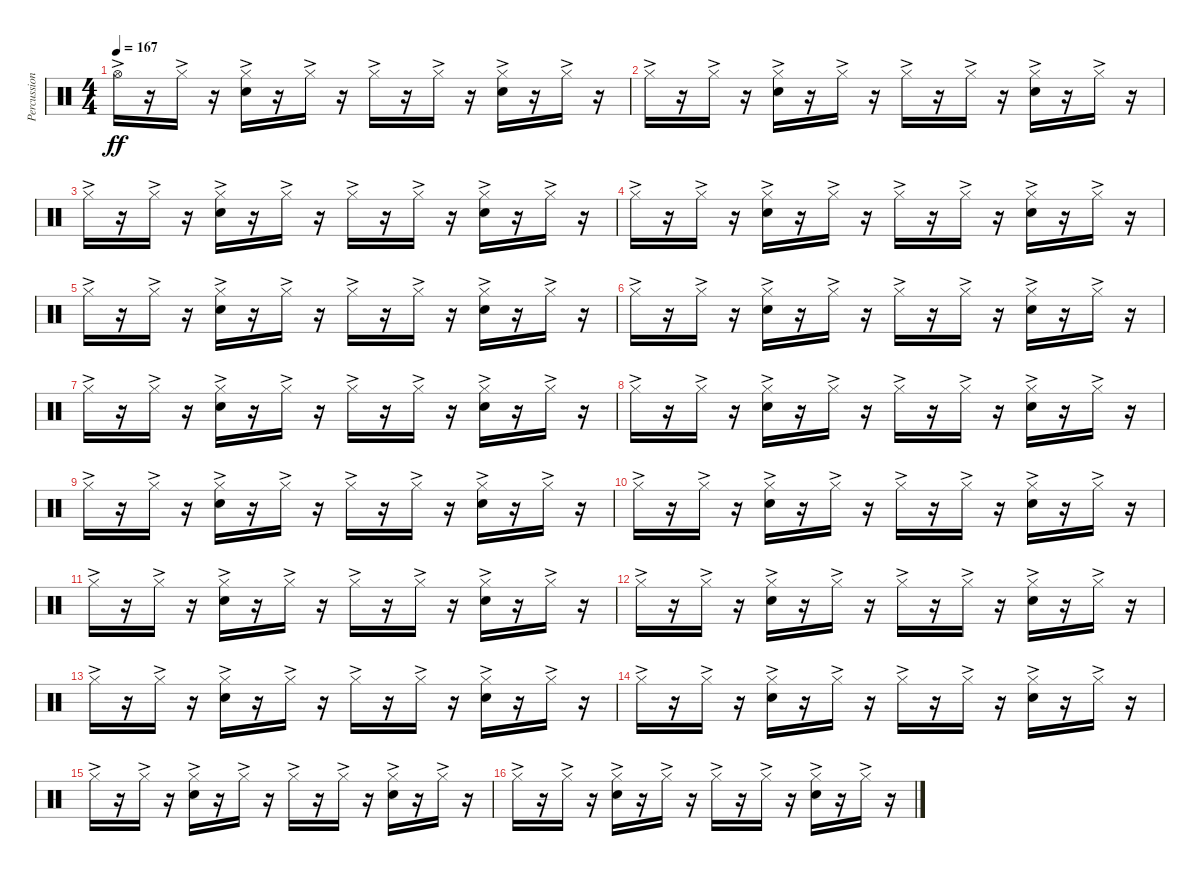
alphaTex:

\track ("Percussion" "Percussion") {instrument percussion}
\staff {score}
\articulation defaults
\ts (4 4)
\tempo 167
\clef neutral
\ks c "Hi-Hat (open)"{ac}.16{dy ff}
r.16 "Hi-Hat (closed)"{ac}.16 r.16 ("Hi-Hat (closed)"{ac} "Snare (hit) 2"{ac}).16 r.16 "Hi-Hat (closed)"{ac}.16 r.16 "Hi-Hat (closed)"{ac}.16 r.16 "Hi-Hat (closed)"{ac}.16 r.16 ("Hi-Hat (closed)"{ac} "Snare (hit) 2"{ac}).16 r.16 "Hi-Hat (closed)"{ac}.16 r.16 |
"Hi-Hat (closed)"{ac}.16 r.16 "Hi-Hat (closed)"{ac}.16 r.16 ("Hi-Hat (closed)"{ac} "Snare (hit) 2"{ac}).16 r.16 "Hi-Hat (closed)"{ac}.16 r.16 "Hi-Hat (closed)"{ac}.16 r.16 "Hi-Hat (closed)"{ac}.16 r.16 ("Hi-Hat (closed)"{ac} "Snare (hit) 2"{ac}).16 r.16 "Hi-Hat (closed)"{ac}.16 r.16 |
"Hi-Hat (closed)"{ac}.16 r.16 "Hi-Hat (closed)"{ac}.16 r.16 ("Hi-Hat (closed)"{ac} "Snare (hit) 2"{ac}).16 r.16 "Hi-Hat (closed)"{ac}.16 r.16 "Hi-Hat (closed)"{ac}.16 r.16 "Hi-Hat (closed)"{ac}.16 r.16 ("Hi-Hat (closed)"{ac} "Snare (hit) 2"{ac}).16 r.16 "Hi-Hat (closed)"{ac}.16 r.16 |
"Hi-Hat (closed)"{ac}.16 r.16 "Hi-Hat (closed)"{ac}.16 r.16 ("Hi-Hat (closed)"{ac} "Snare (hit) 2"{ac}).16 r.16 "Hi-Hat (closed)"{ac}.16 r.16 "Hi-Hat (closed)"{ac}.16 r.16 "Hi-Hat (closed)"{ac}.16 r.16 ("Hi-Hat (closed)"{ac} "Snare (hit) 2"{ac}).16 r.16 "Hi-Hat (closed)"{ac}.16 r.16 |
"Hi-Hat (closed)"{ac}.16 r.16 "Hi-Hat (closed)"{ac}.16 r.16 ("Hi-Hat (closed)"{ac} "Snare (hit) 2"{ac}).16 r.16 "Hi-Hat (closed)"{ac}.16 r.16 "Hi-Hat (closed)"{ac}.16 r.16 "Hi-Hat (closed)"{ac}.16 r.16 ("Hi-Hat (closed)"{ac} "Snare (hit) 2"{ac}).16 r.16 "Hi-Hat (closed)"{ac}.16 r.16 |
"Hi-Hat (closed)"{ac}.16 r.16 "Hi-Hat (closed)"{ac}.16 r.16 ("Hi-Hat (closed)"{ac} "Snare (hit) 2"{ac}).16 r.16 "Hi-Hat (closed)"{ac}.16 r.16 "Hi-Hat (closed)"{ac}.16 r.16 "Hi-Hat (closed)"{ac}.16 r.16 ("Hi-Hat (closed)"{ac} "Snare (hit) 2"{ac}).16 r.16 "Hi-Hat (closed)"{ac}.16 r.16 |
"Hi-Hat (closed)"{ac}.16 r.16 "Hi-Hat (closed)"{ac}.16 r.16 ("Hi-Hat (closed)"{ac} "Snare (hit) 2"{ac}).16 r.16 "Hi-Hat (closed)"{ac}.16 r.16 "Hi-Hat (closed)"{ac}.16 r.16 "Hi-Hat (closed)"{ac}.16 r.16 ("Hi-Hat (closed)"{ac} "Snare (hit) 2"{ac}).16 r.16 "Hi-Hat (closed)"{ac}.16 r.16 |
"Hi-Hat (closed)"{ac}.16 r.16 "Hi-Hat (closed)"{ac}.16 r.16 ("Hi-Hat (closed)"{ac} "Snare (hit) 2"{ac}).16 r.16 "Hi-Hat (closed)"{ac}.16 r.16 "Hi-Hat (closed)"{ac}.16 r.16 "Hi-Hat (closed)"{ac}.16 r.16 ("Hi-Hat (closed)"{ac} "Snare (hit) 2"{ac}).16 r.16 "Hi-Hat (closed)"{ac}.16 r.16 |
"Hi-Hat (closed)"{ac}.16 r.16 "Hi-Hat (closed)"{ac}.16 r.16 ("Hi-Hat (closed)"{ac} "Snare (hit) 2"{ac}).16 r.16 "Hi-Hat (closed)"{ac}.16 r.16 "Hi-Hat (closed)"{ac}.16 r.16 "Hi-Hat (closed)"{ac}.16 r.16 ("Hi-Hat (closed)"{ac} "Snare (hit) 2"{ac}).16 r.16 "Hi-Hat (closed)"{ac}.16 r.16 |
"Hi-Hat (closed)"{ac}.16 r.16 "Hi-Hat (closed)"{ac}.16 r.16 ("Hi-Hat (closed)"{ac} "Snare (hit) 2"{ac}).16 r.16 "Hi-Hat (closed)"{ac}.16 r.16 "Hi-Hat (closed)"{ac}.16 r.16 "Hi-Hat (closed)"{ac}.16 r.16 ("Hi-Hat (closed)"{ac} "Snare (hit) 2"{ac}).16 r.16 "Hi-Hat (closed)"{ac}.16 r.16 |
"Hi-Hat (closed)"{ac}.16 r.16 "Hi-Hat (closed)"{ac}.16 r.16 ("Hi-Hat (closed)"{ac} "Snare (hit) 2"{ac}).16 r.16 "Hi-Hat (closed)"{ac}.16 r.16 "Hi-Hat (closed)"{ac}.16 r.16 "Hi-Hat (closed)"{ac}.16 r.16 ("Hi-Hat (closed)"{ac} "Snare (hit) 2"{ac}).16 r.16 "Hi-Hat (closed)"{ac}.16 r.16 |
"Hi-Hat (closed)"{ac}.16 r.16 "Hi-Hat (closed)"{ac}.16 r.16 ("Hi-Hat (closed)"{ac} "Snare (hit) 2"{ac}).16 r.16 "Hi-Hat (closed)"{ac}.16 r.16 "Hi-Hat (closed)"{ac}.16 r.16 "Hi-Hat (closed)"{ac}.16 r.16 ("Hi-Hat (closed)"{ac} "Snare (hit) 2"{ac}).16 r.16 "Hi-Hat (closed)"{ac}.16 r.16 |
"Hi-Hat (closed)"{ac}.16 r.16 "Hi-Hat (closed)"{ac}.16 r.16 ("Hi-Hat (closed)"{ac} "Snare (hit) 2"{ac}).16 r.16 "Hi-Hat (closed)"{ac}.16 r.16 "Hi-Hat (closed)"{ac}.16 r.16 "Hi-Hat (closed)"{ac}.16 r.16 ("Hi-Hat (closed)"{ac} "Snare (hit) 2"{ac}).16 r.16 "Hi-Hat (closed)"{ac}.16 r.16 |
"Hi-Hat (closed)"{ac}.16 r.16 "Hi-Hat (closed)"{ac}.16 r.16 ("Hi-Hat (closed)"{ac} "Snare (hit) 2"{ac}).16 r.16 "Hi-Hat (closed)"{ac}.16 r.16 "Hi-Hat (closed)"{ac}.16 r.16 "Hi-Hat (closed)"{ac}.16 r.16 ("Hi-Hat (closed)"{ac} "Snare (hit) 2"{ac}).16 r.16 "Hi-Hat (closed)"{ac}.16 r.16 |
"Hi-Hat (closed)"{ac}.16 r.16 "Hi-Hat (closed)"{ac}.16 r.16 ("Hi-Hat (closed)"{ac} "Snare (hit) 2"{ac}).16 r.16 "Hi-Hat (closed)"{ac}.16 r.16 "Hi-Hat (closed)"{ac}.16 r.16 "Hi-Hat (closed)"{ac}.16 r.16 ("Hi-Hat (closed)"{ac} "Snare (hit) 2"{ac}).16 r.16 "Hi-Hat (closed)"{ac}.16 r.16 |
"Hi-Hat (closed)"{ac}.16 r.16 "Hi-Hat (closed)"{ac}.16 r.16 ("Hi-Hat (closed)"{ac} "Snare (hit) 2"{ac}).16 r.16 "Hi-Hat (closed)"{ac}.16 r.16 "Hi-Hat (closed)"{ac}.16 r.16 "Hi-Hat (closed)"{ac}.16 r.16 ("Hi-Hat (closed)"{ac} "Snare (hit) 2"{ac}).16 r.16 "Hi-Hat (closed)"{ac}.16 r.16
